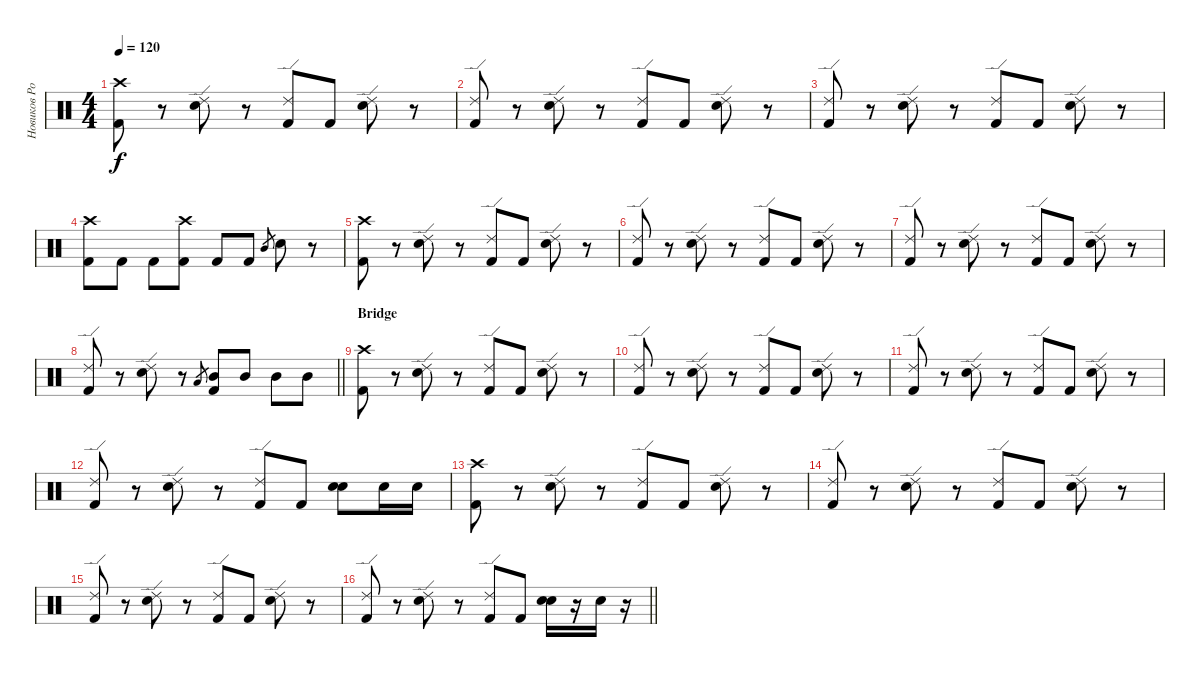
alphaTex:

\track ("Новиков Роман  ( Ударные )" "Новиков Ро") {instrument percussion}
\staff {score}
\articulation defaults
\ts (4 4)
\tempo 120
\clef neutral
\ks c
("Crash high (hit)" "Kick (hit) 2").8{dy f} r.8 ("Ride (edge) 2" "Electric Snare (hit)").8 r.8 ("Ride (edge) 2" "Kick (hit) 2").8 "Kick (hit) 2".8 ("Ride (edge) 2" "Electric Snare (hit)").8 r.8 |
("Ride (edge) 2" "Kick (hit) 2").8 r.8 ("Ride (edge) 2" "Electric Snare (hit)").8 r.8 ("Ride (edge) 2" "Kick (hit) 2").8 "Kick (hit) 2".8 ("Ride (edge) 2" "Electric Snare (hit)").8 r.8 |
("Ride (edge) 2" "Kick (hit) 2").8 r.8 ("Ride (edge) 2" "Electric Snare (hit)").8 r.8 ("Ride (edge) 2" "Kick (hit) 2").8 "Kick (hit) 2".8 ("Ride (edge) 2" "Electric Snare (hit)").8 r.8 |
("Crash high (hit)" "Kick (hit) 2").8 "Kick (hit) 2".8 "Kick (hit) 2".8 ("Kick (hit) 2" "Crash high (hit)").8 "Kick (hit) 2".8 "Kick (hit) 2".8 "Mid Tom (hit)"{h}.8{gr} "Snare (hit) 2".8 r.8 |
("Crash high (hit)" "Kick (hit) 2").8 r.8 ("Ride (edge) 2" "Electric Snare (hit)").8 r.8 ("Ride (edge) 2" "Kick (hit) 2").8 "Kick (hit) 2".8 ("Ride (edge) 2" "Electric Snare (hit)").8 r.8 |
("Ride (edge) 2" "Kick (hit) 2").8 r.8 ("Ride (edge) 2" "Electric Snare (hit)").8 r.8 ("Ride (edge) 2" "Kick (hit) 2").8 "Kick (hit) 2".8 ("Ride (edge) 2" "Electric Snare (hit)").8 r.8 |
("Ride (edge) 2" "Kick (hit) 2").8 r.8 ("Ride (edge) 2" "Electric Snare (hit)").8 r.8 ("Ride (edge) 2" "Kick (hit) 2").8 "Kick (hit) 2".8 ("Ride (edge) 2" "Electric Snare (hit)").8 r.8 |
\barLineRight lightlight
("Ride (edge) 2" "Kick (hit) 2").8 r.8 ("Ride (edge) 2" "Electric Snare (hit)").8 r.8 "Low Tom (hit)"{h}.8{gr} ("Mid Tom (hit)" "Kick (hit) 2").8 "Mid Tom (hit)".8 "Mid Tom (hit)".8 "Mid Tom (hit)".8 |
\section ("" "Bridge")
("Crash high (hit)" "Kick (hit) 2").8 r.8 ("Ride (edge) 2" "Electric Snare (hit)").8 r.8 ("Ride (edge) 2" "Kick (hit) 2").8 "Kick (hit) 2".8 ("Ride (edge) 2" "Electric Snare (hit)").8 r.8 |
("Ride (edge) 2" "Kick (hit) 2").8 r.8 ("Ride (edge) 2" "Electric Snare (hit)").8 r.8 ("Ride (edge) 2" "Kick (hit) 2").8 "Kick (hit) 2".8 ("Ride (edge) 2" "Electric Snare (hit)").8 r.8 |
("Ride (edge) 2" "Kick (hit) 2").8 r.8 ("Ride (edge) 2" "Electric Snare (hit)").8 r.8 ("Ride (edge) 2" "Kick (hit) 2").8 "Kick (hit) 2".8 ("Ride (edge) 2" "Electric Snare (hit)").8 r.8 |
("Ride (edge) 2" "Kick (hit) 2").8 r.8 ("Ride (edge) 2" "Electric Snare (hit)").8 r.8 ("Ride (edge) 2" "Kick (hit) 2").8 "Kick (hit) 2".8 ("Snare (hit) 2" "Electric Snare (hit)").8 "Snare (hit) 2".16 "Snare (hit) 2".16 |
("Crash high (hit)" "Kick (hit) 2").8 r.8 ("Ride (edge) 2" "Electric Snare (hit)").8 r.8 ("Ride (edge) 2" "Kick (hit) 2").8 "Kick (hit) 2".8 ("Ride (edge) 2" "Electric Snare (hit)").8 r.8 |
("Ride (edge) 2" "Kick (hit) 2").8 r.8 ("Ride (edge) 2" "Electric Snare (hit)").8 r.8 ("Ride (edge) 2" "Kick (hit) 2").8 "Kick (hit) 2".8 ("Ride (edge) 2" "Electric Snare (hit)").8 r.8 |
("Ride (edge) 2" "Kick (hit) 2").8 r.8 ("Ride (edge) 2" "Electric Snare (hit)").8 r.8 ("Ride (edge) 2" "Kick (hit) 2").8 "Kick (hit) 2".8 ("Ride (edge) 2" "Electric Snare (hit)").8 r.8 |
\barLineRight lightlight
("Ride (edge) 2" "Kick (hit) 2").8 r.8 ("Ride (edge) 2" "Electric Snare (hit)").8 r.8 ("Ride (edge) 2" "Kick (hit) 2").8 "Kick (hit) 2".8 ("Snare (hit) 2" "Electric Snare (hit)").16 r.16 "Snare (hit) 2".16 r.16
